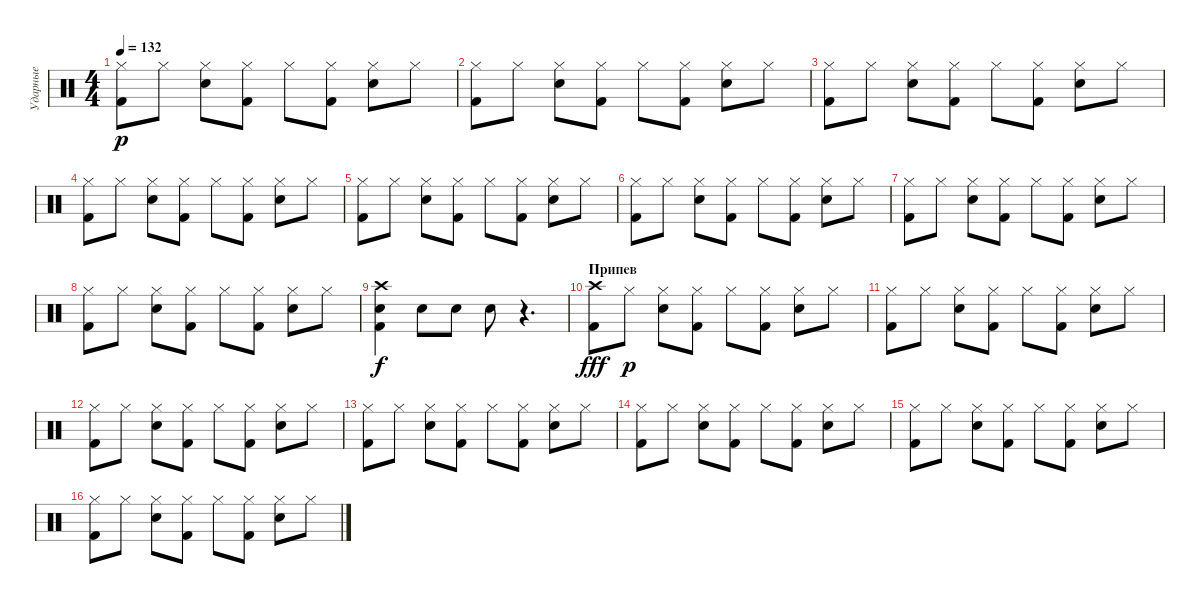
\track ("Ударные" "Ударные") {instrument percussion}
\staff {score}
\articulation defaults
\ts (4 4)
\tempo 132
\clef neutral
\ks c
("Hi-Hat (closed)" "Kick (hit) 2").8{dy p} "Hi-Hat (closed)".8 ("Hi-Hat (closed)" "Snare (hit) 2").8 ("Hi-Hat (closed)" "Kick (hit) 2").8 "Hi-Hat (closed)".8 ("Hi-Hat (closed)" "Kick (hit) 2").8 ("Hi-Hat (closed)" "Snare (hit) 2").8 "Hi-Hat (closed)".8 |
("Hi-Hat (closed)" "Kick (hit) 2").8 "Hi-Hat (closed)".8 ("Hi-Hat (closed)" "Snare (hit) 2").8 ("Hi-Hat (closed)" "Kick (hit) 2").8 "Hi-Hat (closed)".8 ("Hi-Hat (closed)" "Kick (hit) 2").8 ("Hi-Hat (closed)" "Snare (hit) 2").8 "Hi-Hat (closed)".8 |
("Hi-Hat (closed)" "Kick (hit) 2").8 "Hi-Hat (closed)".8 ("Hi-Hat (closed)" "Snare (hit) 2").8 ("Hi-Hat (closed)" "Kick (hit) 2").8 "Hi-Hat (closed)".8 ("Hi-Hat (closed)" "Kick (hit) 2").8 ("Hi-Hat (closed)" "Snare (hit) 2").8 "Hi-Hat (closed)".8 |
("Hi-Hat (closed)" "Kick (hit) 2").8 "Hi-Hat (closed)".8 ("Hi-Hat (closed)" "Snare (hit) 2").8 ("Hi-Hat (closed)" "Kick (hit) 2").8 "Hi-Hat (closed)".8 ("Hi-Hat (closed)" "Kick (hit) 2").8 ("Hi-Hat (closed)" "Snare (hit) 2").8 "Hi-Hat (closed)".8 |
("Hi-Hat (closed)" "Kick (hit) 2").8 "Hi-Hat (closed)".8 ("Hi-Hat (closed)" "Snare (hit) 2").8 ("Hi-Hat (closed)" "Kick (hit) 2").8 "Hi-Hat (closed)".8 ("Hi-Hat (closed)" "Kick (hit) 2").8 ("Hi-Hat (closed)" "Snare (hit) 2").8 "Hi-Hat (closed)".8 |
("Hi-Hat (closed)" "Kick (hit) 2").8 "Hi-Hat (closed)".8 ("Hi-Hat (closed)" "Snare (hit) 2").8 ("Hi-Hat (closed)" "Kick (hit) 2").8 "Hi-Hat (closed)".8 ("Hi-Hat (closed)" "Kick (hit) 2").8 ("Hi-Hat (closed)" "Snare (hit) 2").8 "Hi-Hat (closed)".8 |
("Hi-Hat (closed)" "Kick (hit) 2").8 "Hi-Hat (closed)".8 ("Hi-Hat (closed)" "Snare (hit) 2").8 ("Hi-Hat (closed)" "Kick (hit) 2").8 "Hi-Hat (closed)".8 ("Hi-Hat (closed)" "Kick (hit) 2").8 ("Hi-Hat (closed)" "Snare (hit) 2").8 "Hi-Hat (closed)".8 |
("Hi-Hat (closed)" "Kick (hit) 2").8 "Hi-Hat (closed)".8 ("Hi-Hat (closed)" "Snare (hit) 2").8 ("Hi-Hat (closed)" "Kick (hit) 2").8 "Hi-Hat (closed)".8 ("Hi-Hat (closed)" "Kick (hit) 2").8 ("Hi-Hat (closed)" "Snare (hit) 2").8 "Hi-Hat (closed)".8 |
("Crash high (hit)" "Snare (hit) 2" "Kick (hit) 2").4{dy f} "Snare (hit) 2".8 "Snare (hit) 2".8 "Snare (hit) 2".8 r.4{d} |
\section ("" "Припев")
("Crash high (hit)" "Kick (hit) 2").8{dy fff} "Hi-Hat (closed)".8{dy p} ("Hi-Hat (closed)" "Snare (hit) 2").8 ("Hi-Hat (closed)" "Kick (hit) 2").8 "Hi-Hat (closed)".8 ("Hi-Hat (closed)" "Kick (hit) 2").8 ("Hi-Hat (closed)" "Snare (hit) 2").8 "Hi-Hat (closed)".8 |
("Hi-Hat (closed)" "Kick (hit) 2").8 "Hi-Hat (closed)".8 ("Hi-Hat (closed)" "Snare (hit) 2").8 ("Hi-Hat (closed)" "Kick (hit) 2").8 "Hi-Hat (closed)".8 ("Hi-Hat (closed)" "Kick (hit) 2").8 ("Hi-Hat (closed)" "Snare (hit) 2").8 "Hi-Hat (closed)".8 |
("Hi-Hat (closed)" "Kick (hit) 2").8 "Hi-Hat (closed)".8 ("Hi-Hat (closed)" "Snare (hit) 2").8 ("Hi-Hat (closed)" "Kick (hit) 2").8 "Hi-Hat (closed)".8 ("Hi-Hat (closed)" "Kick (hit) 2").8 ("Hi-Hat (closed)" "Snare (hit) 2").8 "Hi-Hat (closed)".8 |
("Hi-Hat (closed)" "Kick (hit) 2").8 "Hi-Hat (closed)".8 ("Hi-Hat (closed)" "Snare (hit) 2").8 ("Hi-Hat (closed)" "Kick (hit) 2").8 "Hi-Hat (closed)".8 ("Hi-Hat (closed)" "Kick (hit) 2").8 ("Hi-Hat (closed)" "Snare (hit) 2").8 "Hi-Hat (closed)".8 |
("Hi-Hat (closed)" "Kick (hit) 2").8 "Hi-Hat (closed)".8 ("Hi-Hat (closed)" "Snare (hit) 2").8 ("Hi-Hat (closed)" "Kick (hit) 2").8 "Hi-Hat (closed)".8 ("Hi-Hat (closed)" "Kick (hit) 2").8 ("Hi-Hat (closed)" "Snare (hit) 2").8 "Hi-Hat (closed)".8 |
("Hi-Hat (closed)" "Kick (hit) 2").8 "Hi-Hat (closed)".8 ("Hi-Hat (closed)" "Snare (hit) 2").8 ("Hi-Hat (closed)" "Kick (hit) 2").8 "Hi-Hat (closed)".8 ("Hi-Hat (closed)" "Kick (hit) 2").8 ("Hi-Hat (closed)" "Snare (hit) 2").8 "Hi-Hat (closed)".8 |
("Hi-Hat (closed)" "Kick (hit) 2").8 "Hi-Hat (closed)".8 ("Hi-Hat (closed)" "Snare (hit) 2").8 ("Hi-Hat (closed)" "Kick (hit) 2").8 "Hi-Hat (closed)".8 ("Hi-Hat (closed)" "Kick (hit) 2").8 ("Hi-Hat (closed)" "Snare (hit) 2").8 "Hi-Hat (closed)".8
